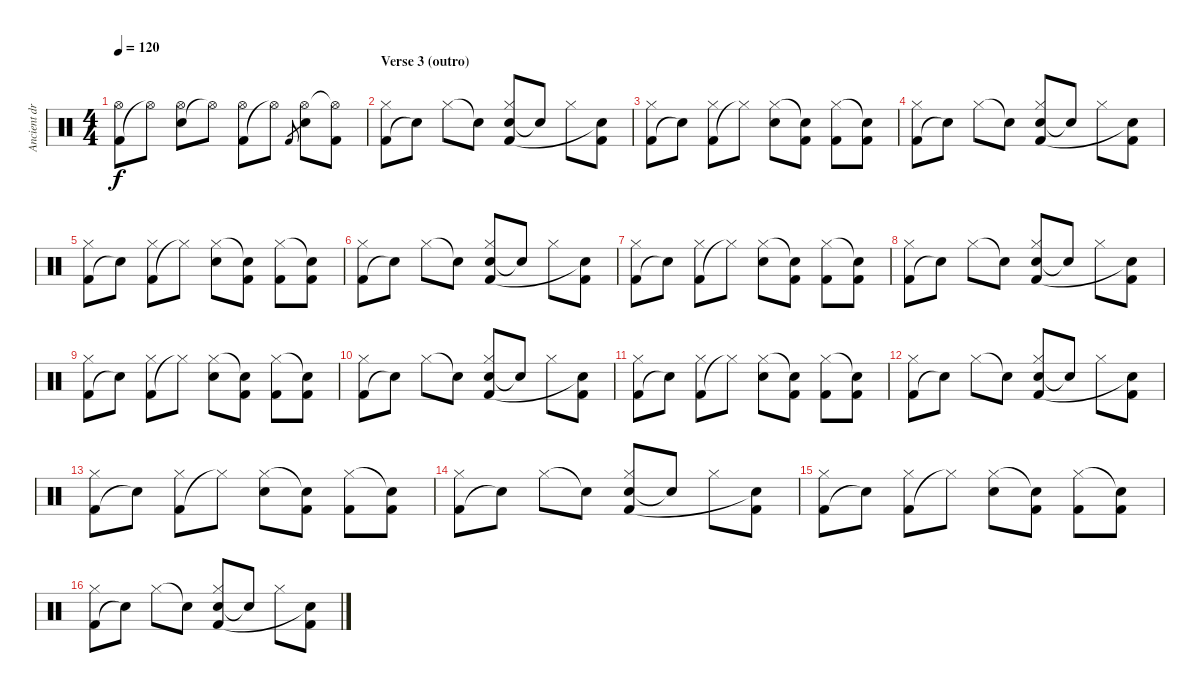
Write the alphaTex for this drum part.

\track ("Ancient drum type things :S" "Ancient dr") {instrument percussion}
\staff {score}
\articulation defaults
\ts (4 4)
\tempo 120
\clef neutral
\ks c
("Kick (hit) 2" "Hi-Hat (open)").8{dy f} "Hi-Hat (open)"{t}.8 ("Electric Snare (hit)" "Hi-Hat (open)").8 "Hi-Hat (open)"{t}.8 ("Kick (hit) 2" "Hi-Hat (open)").8 "Hi-Hat (open)"{t}.8 "Kick (hit) 2".8{gr} ("Electric Snare (hit)" "Hi-Hat (open)").8 ("Kick (hit) 2" "Hi-Hat (open)"{t}).8 |
\section ("" "Verse 3 (outro)")
("Kick (hit) 2" "Hi-Hat (closed)").8 "Snare (hit)"{t}.8 "Hi-Hat (closed)".8 "Snare (hit)"{t}.8 ("Snare (hit) 2" "Kick (hit) 2" "Hi-Hat (closed)").8 "Snare (hit)"{t}.8 "Hi-Hat (closed)".8 ("Kick (hit) 2" "Snare (hit)"{t}).8 |
("Kick (hit) 2" "Hi-Hat (closed)").8 "Snare (hit)"{t}.8 ("Kick (hit) 2" "Hi-Hat (closed)").8 "Hi-Hat (closed)"{t}.8 ("Snare (hit) 2" "Hi-Hat (closed)").8 ("Kick (hit) 2" "Snare (hit)"{t}).8 ("Kick (hit) 2" "Hi-Hat (closed)").8 ("Kick (hit) 2" "Snare (hit)"{t}).8 |
("Kick (hit) 2" "Hi-Hat (closed)").8 "Snare (hit)"{t}.8 "Hi-Hat (closed)".8 "Snare (hit)"{t}.8 ("Snare (hit) 2" "Kick (hit) 2" "Hi-Hat (closed)").8 "Snare (hit)"{t}.8 "Hi-Hat (closed)".8 ("Kick (hit) 2" "Snare (hit)"{t}).8 |
("Kick (hit) 2" "Hi-Hat (closed)").8 "Snare (hit)"{t}.8 ("Kick (hit) 2" "Hi-Hat (closed)").8 "Hi-Hat (closed)"{t}.8 ("Snare (hit) 2" "Hi-Hat (closed)").8 ("Kick (hit) 2" "Snare (hit)"{t}).8 ("Kick (hit) 2" "Hi-Hat (closed)").8 ("Kick (hit) 2" "Snare (hit)"{t}).8 |
("Kick (hit) 2" "Hi-Hat (closed)").8 "Snare (hit)"{t}.8 "Hi-Hat (closed)".8 "Snare (hit)"{t}.8 ("Snare (hit) 2" "Kick (hit) 2" "Hi-Hat (closed)").8 "Snare (hit)"{t}.8 "Hi-Hat (closed)".8 ("Kick (hit) 2" "Snare (hit)"{t}).8 |
("Kick (hit) 2" "Hi-Hat (closed)").8 "Snare (hit)"{t}.8 ("Kick (hit) 2" "Hi-Hat (closed)").8 "Hi-Hat (closed)"{t}.8 ("Snare (hit) 2" "Hi-Hat (closed)").8 ("Kick (hit) 2" "Snare (hit)"{t}).8 ("Kick (hit) 2" "Hi-Hat (closed)").8 ("Kick (hit) 2" "Snare (hit)"{t}).8 |
("Kick (hit) 2" "Hi-Hat (closed)").8 "Snare (hit)"{t}.8 "Hi-Hat (closed)".8 "Snare (hit)"{t}.8 ("Snare (hit) 2" "Kick (hit) 2" "Hi-Hat (closed)").8 "Snare (hit)"{t}.8 "Hi-Hat (closed)".8 ("Kick (hit) 2" "Snare (hit)"{t}).8 |
("Kick (hit) 2" "Hi-Hat (closed)").8 "Snare (hit)"{t}.8 ("Kick (hit) 2" "Hi-Hat (closed)").8 "Hi-Hat (closed)"{t}.8 ("Snare (hit) 2" "Hi-Hat (closed)").8 ("Kick (hit) 2" "Snare (hit)"{t}).8 ("Kick (hit) 2" "Hi-Hat (closed)").8 ("Kick (hit) 2" "Snare (hit)"{t}).8 |
("Kick (hit) 2" "Hi-Hat (closed)").8 "Snare (hit)"{t}.8 "Hi-Hat (closed)".8 "Snare (hit)"{t}.8 ("Snare (hit) 2" "Kick (hit) 2" "Hi-Hat (closed)").8 "Snare (hit)"{t}.8 "Hi-Hat (closed)".8 ("Kick (hit) 2" "Snare (hit)"{t}).8 |
("Kick (hit) 2" "Hi-Hat (closed)").8 "Snare (hit)"{t}.8 ("Kick (hit) 2" "Hi-Hat (closed)").8 "Hi-Hat (closed)"{t}.8 ("Snare (hit) 2" "Hi-Hat (closed)").8 ("Kick (hit) 2" "Snare (hit)"{t}).8 ("Kick (hit) 2" "Hi-Hat (closed)").8 ("Kick (hit) 2" "Snare (hit)"{t}).8 |
("Kick (hit) 2" "Hi-Hat (closed)").8 "Snare (hit)"{t}.8 "Hi-Hat (closed)".8 "Snare (hit)"{t}.8 ("Snare (hit) 2" "Kick (hit) 2" "Hi-Hat (closed)").8 "Snare (hit)"{t}.8 "Hi-Hat (closed)".8 ("Kick (hit) 2" "Snare (hit)"{t}).8 |
("Kick (hit) 2" "Hi-Hat (closed)").8 "Snare (hit)"{t}.8 ("Kick (hit) 2" "Hi-Hat (closed)").8 "Hi-Hat (closed)"{t}.8 ("Snare (hit) 2" "Hi-Hat (closed)").8 ("Kick (hit) 2" "Snare (hit)"{t}).8 ("Kick (hit) 2" "Hi-Hat (closed)").8 ("Kick (hit) 2" "Snare (hit)"{t}).8 |
("Kick (hit) 2" "Hi-Hat (closed)").8 "Snare (hit)"{t}.8 "Hi-Hat (closed)".8 "Snare (hit)"{t}.8 ("Snare (hit) 2" "Kick (hit) 2" "Hi-Hat (closed)").8 "Snare (hit)"{t}.8 "Hi-Hat (closed)".8 ("Kick (hit) 2" "Snare (hit)"{t}).8 |
("Kick (hit) 2" "Hi-Hat (closed)").8 "Snare (hit)"{t}.8 ("Kick (hit) 2" "Hi-Hat (closed)").8 "Hi-Hat (closed)"{t}.8 ("Snare (hit) 2" "Hi-Hat (closed)").8 ("Kick (hit) 2" "Snare (hit)"{t}).8 ("Kick (hit) 2" "Hi-Hat (closed)").8 ("Kick (hit) 2" "Snare (hit)"{t}).8 |
("Kick (hit) 2" "Hi-Hat (closed)").8 "Snare (hit)"{t}.8 "Hi-Hat (closed)".8 "Snare (hit)"{t}.8 ("Snare (hit) 2" "Kick (hit) 2" "Hi-Hat (closed)").8 "Snare (hit)"{t}.8 "Hi-Hat (closed)".8 ("Kick (hit) 2" "Snare (hit)"{t}).8
